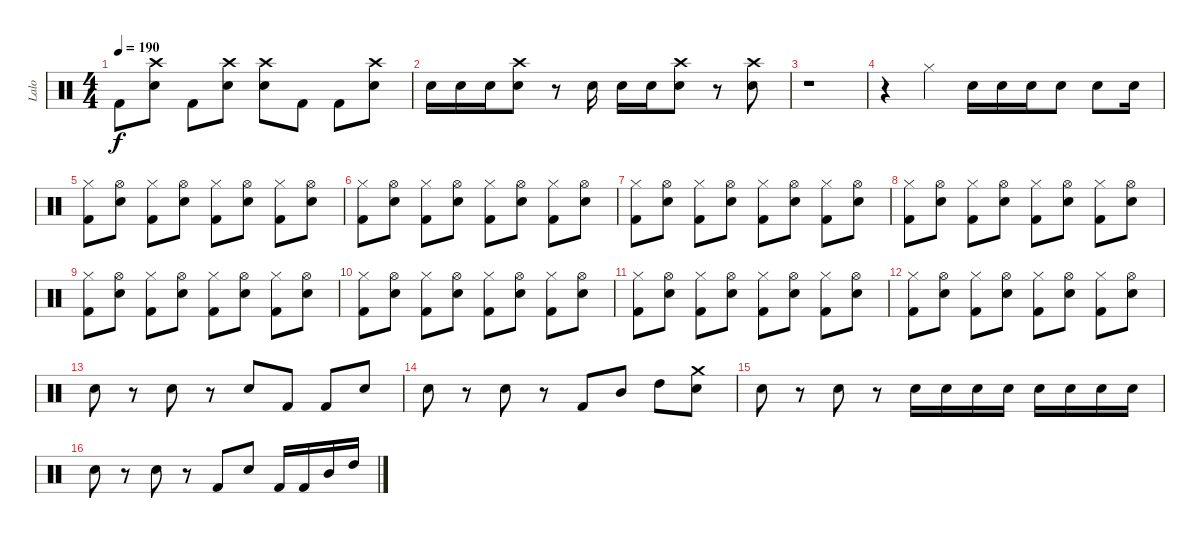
\track ("Lalo" "Lalo") {instrument percussion}
\staff {score}
\articulation defaults
\ts (4 4)
\tempo 190
\clef neutral
\ks c "Kick (hit) 2".8{dy f}
("Crash high (hit)" "Electric Snare (hit)").8 "Kick (hit) 2".8 ("Crash high (hit)" "Electric Snare (hit)").8 ("Crash high (hit)" "Electric Snare (hit)").8 "Kick (hit) 2".8 "Kick (hit) 2".8 ("Crash high (hit)" "Electric Snare (hit)").8 |
"Electric Snare (hit)".16 "Electric Snare (hit)".16 "Electric Snare (hit)".16 ("Crash high (hit)" "Electric Snare (hit)").8 r.8 "Electric Snare (hit)".16 "Electric Snare (hit)".16 "Electric Snare (hit)".16 ("Crash high (hit)" "Electric Snare (hit)").8 r.8 ("Crash high (hit)" "Electric Snare (hit)").8 |
r.1 |
r.4 "Hi-Hat (closed)".4 "Electric Snare (hit)".16 "Electric Snare (hit)".16 "Electric Snare (hit)".16 "Electric Snare (hit)".8 "Electric Snare (hit)".8 "Electric Snare (hit)".16 |
("Hi-Hat (closed)" "Kick (hit) 2").8 ("Hi-Hat (open)" "Electric Snare (hit)").8 ("Hi-Hat (closed)" "Kick (hit) 2").8 ("Hi-Hat (open)" "Electric Snare (hit)").8 ("Hi-Hat (closed)" "Kick (hit) 2").8 ("Hi-Hat (open)" "Electric Snare (hit)").8 ("Hi-Hat (closed)" "Kick (hit) 2").8 ("Hi-Hat (open)" "Electric Snare (hit)").8 |
("Hi-Hat (closed)" "Kick (hit) 2").8 ("Hi-Hat (open)" "Electric Snare (hit)").8 ("Hi-Hat (closed)" "Kick (hit) 2").8 ("Hi-Hat (open)" "Electric Snare (hit)").8 ("Hi-Hat (closed)" "Kick (hit) 2").8 ("Hi-Hat (open)" "Electric Snare (hit)").8 ("Hi-Hat (closed)" "Kick (hit) 2").8 ("Hi-Hat (open)" "Electric Snare (hit)").8 |
("Hi-Hat (closed)" "Kick (hit) 2").8 ("Hi-Hat (open)" "Electric Snare (hit)").8 ("Hi-Hat (closed)" "Kick (hit) 2").8 ("Hi-Hat (open)" "Electric Snare (hit)").8 ("Hi-Hat (closed)" "Kick (hit) 2").8 ("Hi-Hat (open)" "Electric Snare (hit)").8 ("Hi-Hat (closed)" "Kick (hit) 2").8 ("Hi-Hat (open)" "Electric Snare (hit)").8 |
("Hi-Hat (closed)" "Kick (hit) 2").8 ("Hi-Hat (open)" "Electric Snare (hit)").8 ("Hi-Hat (closed)" "Kick (hit) 2").8 ("Hi-Hat (open)" "Electric Snare (hit)").8 ("Hi-Hat (closed)" "Kick (hit) 2").8 ("Hi-Hat (open)" "Electric Snare (hit)").8 ("Hi-Hat (closed)" "Kick (hit) 2").8 ("Hi-Hat (open)" "Electric Snare (hit)").8 |
("Hi-Hat (closed)" "Kick (hit) 2").8 ("Hi-Hat (open)" "Electric Snare (hit)").8 ("Hi-Hat (closed)" "Kick (hit) 2").8 ("Hi-Hat (open)" "Electric Snare (hit)").8 ("Hi-Hat (closed)" "Kick (hit) 2").8 ("Hi-Hat (open)" "Electric Snare (hit)").8 ("Hi-Hat (closed)" "Kick (hit) 2").8 ("Hi-Hat (open)" "Electric Snare (hit)").8 |
("Hi-Hat (closed)" "Kick (hit) 2").8 ("Hi-Hat (open)" "Electric Snare (hit)").8 ("Hi-Hat (closed)" "Kick (hit) 2").8 ("Hi-Hat (open)" "Electric Snare (hit)").8 ("Hi-Hat (closed)" "Kick (hit) 2").8 ("Hi-Hat (open)" "Electric Snare (hit)").8 ("Hi-Hat (closed)" "Kick (hit) 2").8 ("Hi-Hat (open)" "Electric Snare (hit)").8 |
("Hi-Hat (closed)" "Kick (hit) 2").8 ("Hi-Hat (open)" "Electric Snare (hit)").8 ("Hi-Hat (closed)" "Kick (hit) 2").8 ("Hi-Hat (open)" "Electric Snare (hit)").8 ("Hi-Hat (closed)" "Kick (hit) 2").8 ("Hi-Hat (open)" "Electric Snare (hit)").8 ("Hi-Hat (closed)" "Kick (hit) 2").8 ("Hi-Hat (open)" "Electric Snare (hit)").8 |
("Hi-Hat (closed)" "Kick (hit) 2").8 ("Hi-Hat (open)" "Electric Snare (hit)").8 ("Hi-Hat (closed)" "Kick (hit) 2").8 ("Hi-Hat (open)" "Electric Snare (hit)").8 ("Hi-Hat (closed)" "Kick (hit) 2").8 ("Hi-Hat (open)" "Electric Snare (hit)").8 ("Hi-Hat (closed)" "Kick (hit) 2").8 ("Hi-Hat (open)" "Electric Snare (hit)").8 |
"Electric Snare (hit)".8 r.8 "Electric Snare (hit)".8 r.8 "Electric Snare (hit)".8 "Kick (hit) 2".8 "Kick (hit) 2".8 "Electric Snare (hit)".8 |
"Electric Snare (hit)".8 r.8 "Electric Snare (hit)".8 r.8 "Kick (hit) 2".8 "Mid Tom (hit)".8 "High Tom (hit)".8 ("Crash medium (hit)" "Electric Snare (hit)").8 |
"Electric Snare (hit)".8 r.8 "Electric Snare (hit)".8 r.8 "Electric Snare (hit)".16 "Electric Snare (hit)".16 "Electric Snare (hit)".16 "Electric Snare (hit)".16 "Electric Snare (hit)".16 "Electric Snare (hit)".16 "Electric Snare (hit)".16 "Electric Snare (hit)".16 |
"Electric Snare (hit)".8 r.8 "Electric Snare (hit)".8 r.8 "Kick (hit) 2".8 "Electric Snare (hit)".8 "Kick (hit) 2".16 "Kick (hit) 2".16 "Mid Tom (hit)".16 "High Tom (hit)".16
